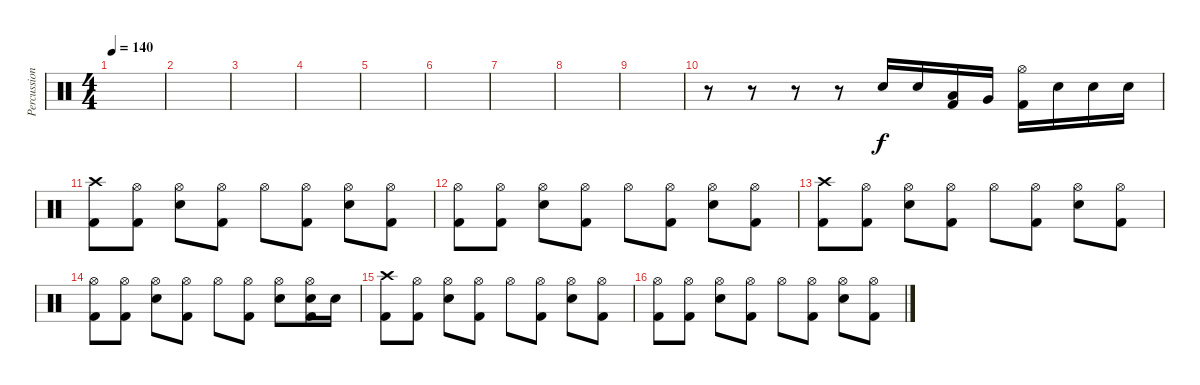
\track ("Percussion" "Percussion") {instrument percussion}
\staff {score}
\articulation defaults
\ts (4 4)
\tempo 140
\clef neutral
\ks c
|
|
|
|
|
|
|
|
|
r.8 r.8 r.8 r.8 "Electric Snare (hit)".16 "Electric Snare (hit)".16 ("Low Tom (hit)" "Kick (hit) 2").16 "Very Low Tom (hit)".16 ("Hi-Hat (open)" "Kick (hit) 2").16 "Electric Snare (hit)".16 "Electric Snare (hit)".16 "Electric Snare (hit)".16 |
("Crash high (hit)" "Kick (hit) 2").8 ("Hi-Hat (open)" "Kick (hit) 2").8 ("Hi-Hat (open)" "Electric Snare (hit)").8 ("Hi-Hat (open)" "Kick (hit) 2").8 "Hi-Hat (open)".8 ("Hi-Hat (open)" "Kick (hit) 2").8 ("Hi-Hat (open)" "Electric Snare (hit)").8 ("Hi-Hat (open)" "Kick (hit) 2").8 |
("Hi-Hat (open)" "Kick (hit) 2").8 ("Hi-Hat (open)" "Kick (hit) 2").8 ("Hi-Hat (open)" "Electric Snare (hit)").8 ("Hi-Hat (open)" "Kick (hit) 2").8 "Hi-Hat (open)".8 ("Hi-Hat (open)" "Kick (hit) 2").8 ("Hi-Hat (open)" "Electric Snare (hit)").8 ("Hi-Hat (open)" "Kick (hit) 2").8 |
("Crash high (hit)" "Kick (hit) 2").8 ("Hi-Hat (open)" "Kick (hit) 2").8 ("Hi-Hat (open)" "Electric Snare (hit)").8 ("Hi-Hat (open)" "Kick (hit) 2").8 "Hi-Hat (open)".8 ("Hi-Hat (open)" "Kick (hit) 2").8 ("Hi-Hat (open)" "Electric Snare (hit)").8 ("Hi-Hat (open)" "Kick (hit) 2").8 |
("Hi-Hat (open)" "Kick (hit) 2").8 ("Hi-Hat (open)" "Kick (hit) 2").8 ("Hi-Hat (open)" "Electric Snare (hit)").8 ("Hi-Hat (open)" "Kick (hit) 2").8 "Hi-Hat (open)".8 ("Hi-Hat (open)" "Kick (hit) 2").8 ("Hi-Hat (open)" "Electric Snare (hit)").8 ("Hi-Hat (open)" "Electric Snare (hit)" "Kick (hit) 2").16 "Electric Snare (hit)".16 |
("Crash high (hit)" "Kick (hit) 2").8 ("Hi-Hat (open)" "Kick (hit) 2").8 ("Hi-Hat (open)" "Electric Snare (hit)").8 ("Hi-Hat (open)" "Kick (hit) 2").8 "Hi-Hat (open)".8 ("Hi-Hat (open)" "Kick (hit) 2").8 ("Hi-Hat (open)" "Electric Snare (hit)").8 ("Hi-Hat (open)" "Kick (hit) 2").8 |
("Hi-Hat (open)" "Kick (hit) 2").8 ("Hi-Hat (open)" "Kick (hit) 2").8 ("Hi-Hat (open)" "Electric Snare (hit)").8 ("Hi-Hat (open)" "Kick (hit) 2").8 "Hi-Hat (open)".8 ("Hi-Hat (open)" "Kick (hit) 2").8 ("Hi-Hat (open)" "Electric Snare (hit)").8 ("Hi-Hat (open)" "Kick (hit) 2").8
